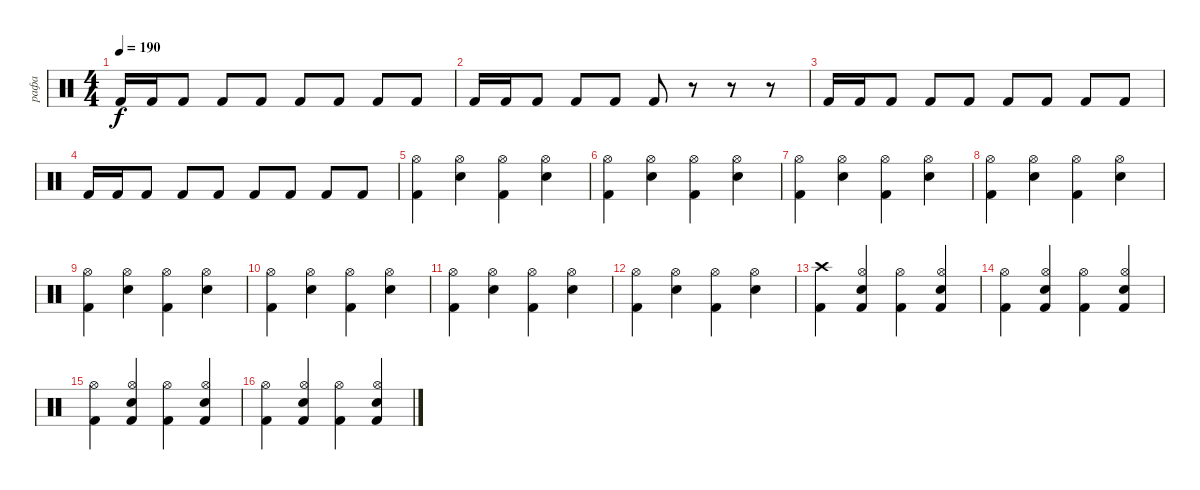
\track ("рафа" "рафа") {instrument percussion}
\staff {score}
\articulation defaults
\ts (4 4)
\tempo 190
\clef neutral
\ks c "Kick (hit) 2".16{dy f} "Kick (hit) 2".16 "Kick (hit) 2".8 "Kick (hit) 2".8 "Kick (hit) 2".8 "Kick (hit) 2".8 "Kick (hit) 2".8 "Kick (hit) 2".8 "Kick (hit) 2".8
|
"Kick (hit) 2".16 "Kick (hit) 2".16 "Kick (hit) 2".8 "Kick (hit) 2".8 "Kick (hit) 2".8 "Kick (hit) 2".8 r.8 r.8 r.8 |
"Kick (hit) 2".16 "Kick (hit) 2".16 "Kick (hit) 2".8 "Kick (hit) 2".8 "Kick (hit) 2".8 "Kick (hit) 2".8 "Kick (hit) 2".8 "Kick (hit) 2".8 "Kick (hit) 2".8 |
"Kick (hit) 2".16 "Kick (hit) 2".16 "Kick (hit) 2".8 "Kick (hit) 2".8 "Kick (hit) 2".8 "Kick (hit) 2".8 "Kick (hit) 2".8 "Kick (hit) 2".8 "Kick (hit) 2".8 |
("Kick (hit) 2" "Hi-Hat (open)").4 ("Snare (hit) 2" "Hi-Hat (open)").4 ("Kick (hit) 2" "Hi-Hat (open)").4 ("Snare (hit) 2" "Hi-Hat (open)").4 |
("Kick (hit) 2" "Hi-Hat (open)").4 ("Snare (hit) 2" "Hi-Hat (open)").4 ("Kick (hit) 2" "Hi-Hat (open)").4 ("Snare (hit) 2" "Hi-Hat (open)").4 |
("Kick (hit) 2" "Hi-Hat (open)").4 ("Snare (hit) 2" "Hi-Hat (open)").4 ("Kick (hit) 2" "Hi-Hat (open)").4 ("Snare (hit) 2" "Hi-Hat (open)").4 |
("Kick (hit) 2" "Hi-Hat (open)").4 ("Snare (hit) 2" "Hi-Hat (open)").4 ("Kick (hit) 2" "Hi-Hat (open)").4 ("Snare (hit) 2" "Hi-Hat (open)").4 |
("Kick (hit) 2" "Hi-Hat (open)").4 ("Snare (hit) 2" "Hi-Hat (open)").4 ("Kick (hit) 2" "Hi-Hat (open)").4 ("Snare (hit) 2" "Hi-Hat (open)").4 |
("Kick (hit) 2" "Hi-Hat (open)").4 ("Snare (hit) 2" "Hi-Hat (open)").4 ("Kick (hit) 2" "Hi-Hat (open)").4 ("Snare (hit) 2" "Hi-Hat (open)").4 |
("Kick (hit) 2" "Hi-Hat (open)").4 ("Snare (hit) 2" "Hi-Hat (open)").4 ("Kick (hit) 2" "Hi-Hat (open)").4 ("Snare (hit) 2" "Hi-Hat (open)").4 |
("Kick (hit) 2" "Hi-Hat (open)").4 ("Snare (hit) 2" "Hi-Hat (open)").4 ("Kick (hit) 2" "Hi-Hat (open)").4 ("Snare (hit) 2" "Hi-Hat (open)").4 |
("Kick (hit) 2" "Crash high (hit)").4 ("Kick (hit) 2" "Snare (hit) 2" "Hi-Hat (open)").4 ("Kick (hit) 2" "Hi-Hat (open)").4 ("Kick (hit) 2" "Snare (hit) 2" "Hi-Hat (open)").4 |
("Kick (hit) 2" "Hi-Hat (open)").4 ("Kick (hit) 2" "Snare (hit) 2" "Hi-Hat (open)").4 ("Kick (hit) 2" "Hi-Hat (open)").4 ("Kick (hit) 2" "Snare (hit) 2" "Hi-Hat (open)").4 |
("Kick (hit) 2" "Hi-Hat (open)").4 ("Kick (hit) 2" "Snare (hit) 2" "Hi-Hat (open)").4 ("Kick (hit) 2" "Hi-Hat (open)").4 ("Kick (hit) 2" "Snare (hit) 2" "Hi-Hat (open)").4 |
("Kick (hit) 2" "Hi-Hat (open)").4 ("Kick (hit) 2" "Snare (hit) 2" "Hi-Hat (open)").4 ("Kick (hit) 2" "Hi-Hat (open)").4 ("Kick (hit) 2" "Snare (hit) 2" "Hi-Hat (open)").4
